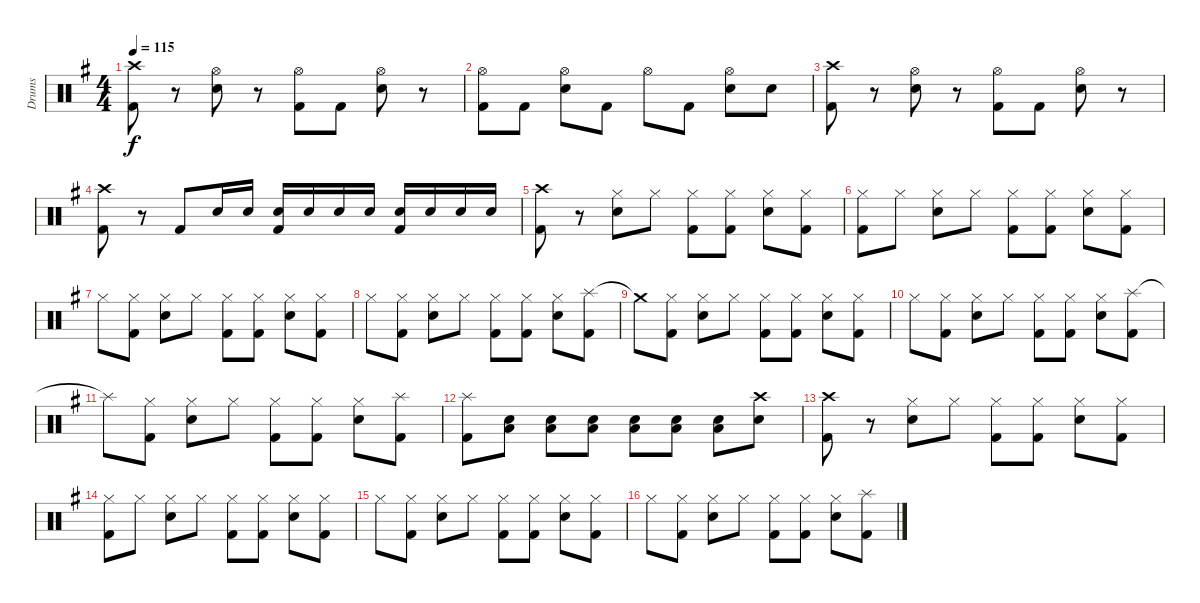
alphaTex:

\track ("Drums" "Drums") {instrument percussion}
\staff {score}
\articulation defaults
\ts (4 4)
\tempo 115
\clef neutral
\ks g
("Crash high (hit)" "Kick (hit) 2").8{dy f} r.8 ("Hi-Hat (open)" "Electric Snare (hit)").8 r.8 ("Hi-Hat (open)" "Kick (hit) 2").8 "Kick (hit) 2".8 ("Hi-Hat (open)" "Electric Snare (hit)").8 r.8 |
("Hi-Hat (open)" "Kick (hit) 2").8 "Kick (hit) 2".8 ("Hi-Hat (open)" "Electric Snare (hit)").8 "Kick (hit) 2".8 "Hi-Hat (open)".8 "Kick (hit) 2".8 ("Hi-Hat (open)" "Electric Snare (hit)").8 "Electric Snare (hit)".8 |
("Crash high (hit)" "Kick (hit) 2").8 r.8 ("Hi-Hat (open)" "Electric Snare (hit)").8 r.8 ("Hi-Hat (open)" "Kick (hit) 2").8 "Kick (hit) 2".8 ("Hi-Hat (open)" "Electric Snare (hit)").8 r.8 |
("Crash high (hit)" "Kick (hit) 2").8 r.8 "Kick (hit) 2".8 "Electric Snare (hit)".16 "Electric Snare (hit)".16 ("Electric Snare (hit)" "Kick (hit) 2").16 "Electric Snare (hit)".16 "Electric Snare (hit)".16 "Electric Snare (hit)".16 ("Electric Snare (hit)" "Kick (hit) 2").16 "Electric Snare (hit)".16 "Electric Snare (hit)".16 "Electric Snare (hit)".16 |
("Crash high (hit)" "Kick (hit) 2").8 r.8 ("Hi-Hat (closed)" "Electric Snare (hit)").8 "Hi-Hat (closed)".8 ("Hi-Hat (closed)" "Kick (hit) 2").8 ("Hi-Hat (closed)" "Kick (hit) 2").8 ("Hi-Hat (closed)" "Electric Snare (hit)").8 ("Hi-Hat (closed)" "Kick (hit) 2").8 |
("Hi-Hat (closed)" "Kick (hit) 2").8 "Hi-Hat (closed)".8 ("Hi-Hat (closed)" "Electric Snare (hit)").8 "Hi-Hat (closed)".8 ("Hi-Hat (closed)" "Kick (hit) 2").8 ("Hi-Hat (closed)" "Kick (hit) 2").8 ("Hi-Hat (closed)" "Electric Snare (hit)").8 ("Hi-Hat (closed)" "Kick (hit) 2").8 |
"Hi-Hat (closed)".8 ("Hi-Hat (closed)" "Kick (hit) 2").8 ("Hi-Hat (closed)" "Electric Snare (hit)").8 "Hi-Hat (closed)".8 ("Hi-Hat (closed)" "Kick (hit) 2").8 ("Hi-Hat (closed)" "Kick (hit) 2").8 ("Hi-Hat (closed)" "Electric Snare (hit)").8 ("Hi-Hat (closed)" "Kick (hit) 2").8 |
"Hi-Hat (closed)".8 ("Hi-Hat (closed)" "Kick (hit) 2").8 ("Hi-Hat (closed)" "Electric Snare (hit)").8 "Hi-Hat (closed)".8 ("Hi-Hat (closed)" "Kick (hit) 2").8 ("Hi-Hat (closed)" "Kick (hit) 2").8 ("Hi-Hat (closed)" "Electric Snare (hit)").8 ("Splash (hit)" "Kick (hit) 2").8 |
"Crash medium (hit)"{t}.8 ("Hi-Hat (closed)" "Kick (hit) 2").8 ("Hi-Hat (closed)" "Electric Snare (hit)").8 "Hi-Hat (closed)".8 ("Hi-Hat (closed)" "Kick (hit) 2").8 ("Hi-Hat (closed)" "Kick (hit) 2").8 ("Hi-Hat (closed)" "Electric Snare (hit)").8 ("Hi-Hat (closed)" "Kick (hit) 2").8 |
"Hi-Hat (closed)".8 ("Hi-Hat (closed)" "Kick (hit) 2").8 ("Hi-Hat (closed)" "Electric Snare (hit)").8 "Hi-Hat (closed)".8 ("Hi-Hat (closed)" "Kick (hit) 2").8 ("Hi-Hat (closed)" "Kick (hit) 2").8 ("Hi-Hat (closed)" "Electric Snare (hit)").8 ("Splash (hit)" "Kick (hit) 2").8 |
"Splash (hit)"{t}.8 ("Hi-Hat (closed)" "Kick (hit) 2").8 ("Hi-Hat (closed)" "Electric Snare (hit)").8 "Hi-Hat (closed)".8 ("Hi-Hat (closed)" "Kick (hit) 2").8 ("Hi-Hat (closed)" "Kick (hit) 2").8 ("Hi-Hat (closed)" "Electric Snare (hit)").8 ("Splash (hit)" "Kick (hit) 2").8 |
("Splash (hit)" "Kick (hit) 2").8 ("Electric Snare (hit)" "Low Tom (hit)").8 ("Electric Snare (hit)" "Low Tom (hit)").8 ("Electric Snare (hit)" "Low Tom (hit)").8 ("Electric Snare (hit)" "Low Tom (hit)").8 ("Electric Snare (hit)" "Low Tom (hit)").8 ("Electric Snare (hit)" "Low Tom (hit)").8 ("Crash high (hit)" "Electric Snare (hit)").8 |
("Crash high (hit)" "Kick (hit) 2").8 r.8 ("Hi-Hat (closed)" "Electric Snare (hit)").8 "Hi-Hat (closed)".8 ("Hi-Hat (closed)" "Kick (hit) 2").8 ("Hi-Hat (closed)" "Kick (hit) 2").8 ("Hi-Hat (closed)" "Electric Snare (hit)").8 ("Hi-Hat (closed)" "Kick (hit) 2").8 |
("Hi-Hat (closed)" "Kick (hit) 2").8 "Hi-Hat (closed)".8 ("Hi-Hat (closed)" "Electric Snare (hit)").8 "Hi-Hat (closed)".8 ("Hi-Hat (closed)" "Kick (hit) 2").8 ("Hi-Hat (closed)" "Kick (hit) 2").8 ("Hi-Hat (closed)" "Electric Snare (hit)").8 ("Hi-Hat (closed)" "Kick (hit) 2").8 |
"Hi-Hat (closed)".8 ("Hi-Hat (closed)" "Kick (hit) 2").8 ("Hi-Hat (closed)" "Electric Snare (hit)").8 "Hi-Hat (closed)".8 ("Hi-Hat (closed)" "Kick (hit) 2").8 ("Hi-Hat (closed)" "Kick (hit) 2").8 ("Hi-Hat (closed)" "Electric Snare (hit)").8 ("Hi-Hat (closed)" "Kick (hit) 2").8 |
"Hi-Hat (closed)".8 ("Hi-Hat (closed)" "Kick (hit) 2").8 ("Hi-Hat (closed)" "Electric Snare (hit)").8 "Hi-Hat (closed)".8 ("Hi-Hat (closed)" "Kick (hit) 2").8 ("Hi-Hat (closed)" "Kick (hit) 2").8 ("Hi-Hat (closed)" "Electric Snare (hit)").8 ("Splash (hit)" "Kick (hit) 2").8
